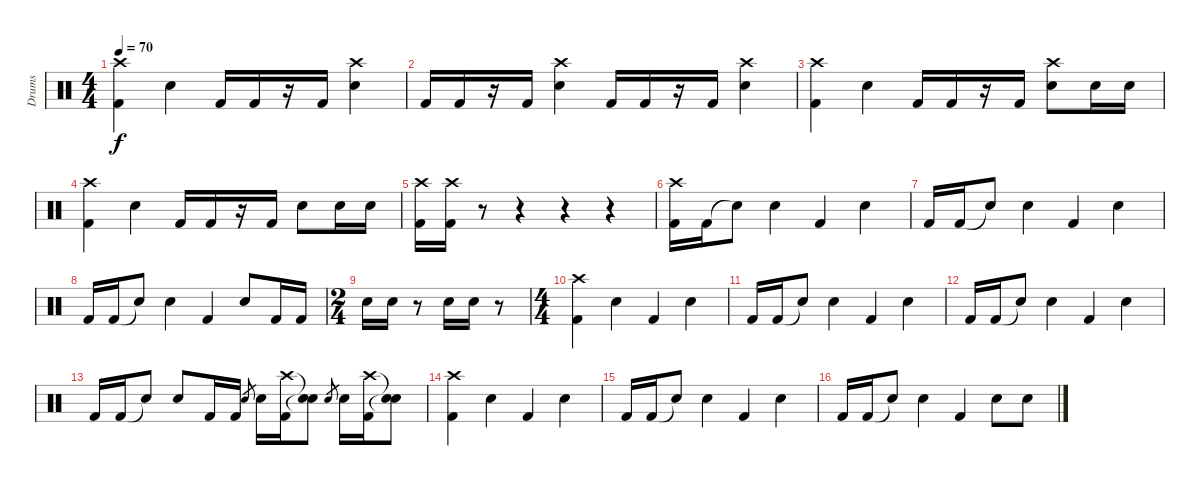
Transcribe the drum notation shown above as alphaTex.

\track ("Drums" "Drums") {instrument percussion}
\staff {score}
\articulation defaults
\ts (4 4)
\tempo 70
\clef neutral
\ks c
("Crash high (hit)" "Kick (hit) 2").4{dy f} "Electric Snare (hit)".4 "Kick (hit) 2".16 "Kick (hit) 2".16 r.16 "Kick (hit) 2".16 ("Crash high (hit)" "Electric Snare (hit)").4 |
"Kick (hit) 2".16 "Kick (hit) 2".16 r.16 "Kick (hit) 2".16 ("Crash high (hit)" "Electric Snare (hit)").4 "Kick (hit) 2".16 "Kick (hit) 2".16 r.16 "Kick (hit) 2".16 ("Crash high (hit)" "Electric Snare (hit)").4 |
("Crash high (hit)" "Kick (hit) 2").4 "Electric Snare (hit)".4 "Kick (hit) 2".16 "Kick (hit) 2".16 r.16 "Kick (hit) 2".16 ("Crash high (hit)" "Electric Snare (hit)").8 "Electric Snare (hit)".16 "Electric Snare (hit)".16 |
("Crash high (hit)" "Kick (hit) 2").4 "Electric Snare (hit)".4 "Kick (hit) 2".16 "Kick (hit) 2".16 r.16 "Kick (hit) 2".16 "Electric Snare (hit)".8 "Electric Snare (hit)".16 "Electric Snare (hit)".16 |
("Crash high (hit)" "Kick (hit) 2").16 ("Crash high (hit)" "Kick (hit) 2").16 r.8 r.4 r.4 r.4 |
("Crash high (hit)" "Kick (hit) 2").16 "Kick (hit) 2".16 "Snare (hit)"{t}.8 "Electric Snare (hit)".4 "Kick (hit) 2".4 "Electric Snare (hit)".4 |
"Kick (hit) 2".16 "Kick (hit) 2".16 "Snare (hit)"{t}.8 "Electric Snare (hit)".4 "Kick (hit) 2".4 "Electric Snare (hit)".4 |
"Kick (hit) 2".16 "Kick (hit) 2".16 "Snare (hit)"{t}.8 "Electric Snare (hit)".4 "Kick (hit) 2".4 "Electric Snare (hit)".8 "Kick (hit) 2".16 "Kick (hit) 2".16 |
\ts (2 4)
"Electric Snare (hit)".16 "Electric Snare (hit)".16 r.8 "Electric Snare (hit)".16 "Electric Snare (hit)".16 r.8 |
\ts (4 4)
("Crash high (hit)" "Kick (hit) 2").4 "Electric Snare (hit)".4 "Kick (hit) 2".4 "Electric Snare (hit)".4 |
"Kick (hit) 2".16 "Kick (hit) 2".16 "Snare (hit)"{t}.8 "Electric Snare (hit)".4 "Kick (hit) 2".4 "Electric Snare (hit)".4 |
"Kick (hit) 2".16 "Kick (hit) 2".16 "Snare (hit)"{t}.8 "Electric Snare (hit)".4 "Kick (hit) 2".4 "Electric Snare (hit)".4 |
"Kick (hit) 2".16 "Kick (hit) 2".16 "Snare (hit)"{t}.8 "Electric Snare (hit)".8 "Kick (hit) 2".16 "Kick (hit) 2".16 "Electric Snare (hit)".8{gr} "Electric Snare (hit)".16 ("Crash high (hit)" "Kick (hit) 2").16 ("Snare (hit)"{t} "Snare (hit)"{t}).8 "Electric Snare (hit)".8{gr} "Electric Snare (hit)".16 ("Crash high (hit)" "Kick (hit) 2").16 ("Snare (hit)"{t} "Snare (hit)"{t}).8 |
("Crash high (hit)" "Kick (hit) 2").4 "Electric Snare (hit)".4 "Kick (hit) 2".4 "Electric Snare (hit)".4 |
"Kick (hit) 2".16 "Kick (hit) 2".16 "Snare (hit)"{t}.8 "Electric Snare (hit)".4 "Kick (hit) 2".4 "Electric Snare (hit)".4 |
"Kick (hit) 2".16 "Kick (hit) 2".16 "Snare (hit)"{t}.8 "Electric Snare (hit)".4 "Kick (hit) 2".4 "Electric Snare (hit)".8 "Electric Snare (hit)".8
